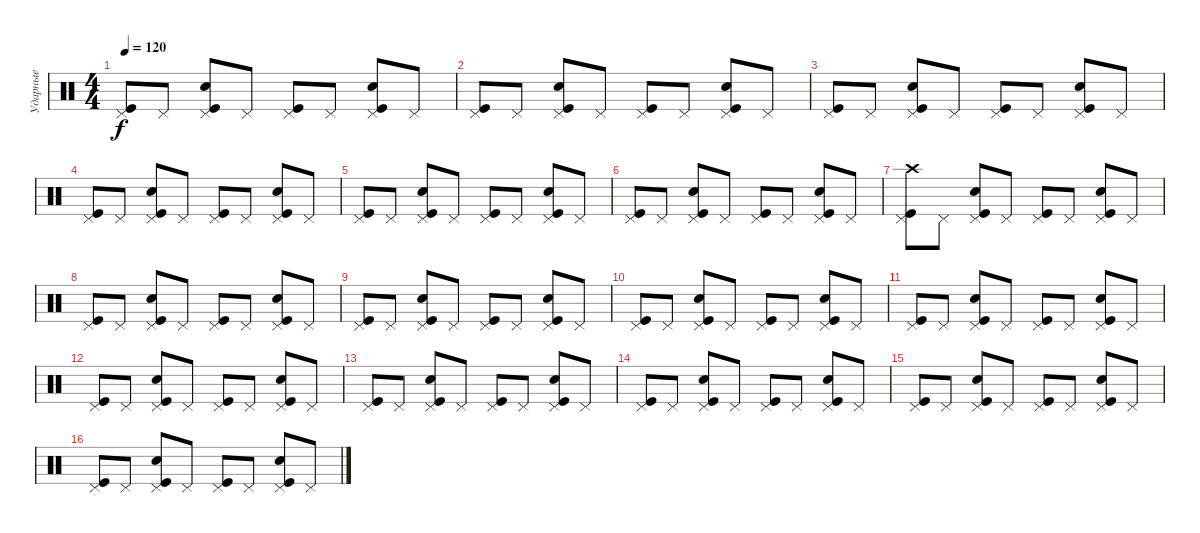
\track ("Ударные" "Ударные") {instrument percussion}
\staff {score}
\articulation defaults
\ts (4 4)
\tempo 120
\clef neutral
\ks c
("Pedal Hi-Hat (hit)" "Kick (hit)").8{dy f} "Pedal Hi-Hat (hit)".8 ("Pedal Hi-Hat (hit)" "Kick (hit)" "Snare (hit) 2").8 "Pedal Hi-Hat (hit)".8 ("Pedal Hi-Hat (hit)" "Kick (hit)").8 "Pedal Hi-Hat (hit)".8 ("Pedal Hi-Hat (hit)" "Kick (hit)" "Snare (hit) 2").8 "Pedal Hi-Hat (hit)".8 |
("Pedal Hi-Hat (hit)" "Kick (hit)").8 "Pedal Hi-Hat (hit)".8 ("Pedal Hi-Hat (hit)" "Kick (hit)" "Snare (hit) 2").8 "Pedal Hi-Hat (hit)".8 ("Pedal Hi-Hat (hit)" "Kick (hit)").8 "Pedal Hi-Hat (hit)".8 ("Pedal Hi-Hat (hit)" "Kick (hit)" "Snare (hit) 2").8 "Pedal Hi-Hat (hit)".8 |
("Pedal Hi-Hat (hit)" "Kick (hit)").8 "Pedal Hi-Hat (hit)".8 ("Pedal Hi-Hat (hit)" "Kick (hit)" "Snare (hit) 2").8 "Pedal Hi-Hat (hit)".8 ("Pedal Hi-Hat (hit)" "Kick (hit)").8 "Pedal Hi-Hat (hit)".8 ("Pedal Hi-Hat (hit)" "Kick (hit)" "Snare (hit) 2").8 "Pedal Hi-Hat (hit)".8 |
("Pedal Hi-Hat (hit)" "Kick (hit)").8 "Pedal Hi-Hat (hit)".8 ("Pedal Hi-Hat (hit)" "Kick (hit)" "Snare (hit) 2").8 "Pedal Hi-Hat (hit)".8 ("Pedal Hi-Hat (hit)" "Kick (hit)").8 "Pedal Hi-Hat (hit)".8 ("Pedal Hi-Hat (hit)" "Kick (hit)" "Snare (hit) 2").8 "Pedal Hi-Hat (hit)".8 |
("Pedal Hi-Hat (hit)" "Kick (hit)").8 "Pedal Hi-Hat (hit)".8 ("Pedal Hi-Hat (hit)" "Kick (hit)" "Snare (hit) 2").8 "Pedal Hi-Hat (hit)".8 ("Pedal Hi-Hat (hit)" "Kick (hit)").8 "Pedal Hi-Hat (hit)".8 ("Pedal Hi-Hat (hit)" "Kick (hit)" "Snare (hit) 2").8 "Pedal Hi-Hat (hit)".8 |
("Pedal Hi-Hat (hit)" "Kick (hit)").8 "Pedal Hi-Hat (hit)".8 ("Pedal Hi-Hat (hit)" "Kick (hit)" "Snare (hit) 2").8 "Pedal Hi-Hat (hit)".8 ("Pedal Hi-Hat (hit)" "Kick (hit)").8 "Pedal Hi-Hat (hit)".8 ("Pedal Hi-Hat (hit)" "Kick (hit)" "Snare (hit) 2").8 "Pedal Hi-Hat (hit)".8 |
("Pedal Hi-Hat (hit)" "Kick (hit)" "Crash high (hit)").8 "Pedal Hi-Hat (hit)".8 ("Pedal Hi-Hat (hit)" "Kick (hit)" "Snare (hit) 2").8 "Pedal Hi-Hat (hit)".8 ("Pedal Hi-Hat (hit)" "Kick (hit)").8 "Pedal Hi-Hat (hit)".8 ("Pedal Hi-Hat (hit)" "Kick (hit)" "Snare (hit) 2").8 "Pedal Hi-Hat (hit)".8 |
("Pedal Hi-Hat (hit)" "Kick (hit)").8 "Pedal Hi-Hat (hit)".8 ("Pedal Hi-Hat (hit)" "Kick (hit)" "Snare (hit) 2").8 "Pedal Hi-Hat (hit)".8 ("Pedal Hi-Hat (hit)" "Kick (hit)").8 "Pedal Hi-Hat (hit)".8 ("Pedal Hi-Hat (hit)" "Kick (hit)" "Snare (hit) 2").8 "Pedal Hi-Hat (hit)".8 |
("Pedal Hi-Hat (hit)" "Kick (hit)").8 "Pedal Hi-Hat (hit)".8 ("Pedal Hi-Hat (hit)" "Kick (hit)" "Snare (hit) 2").8 "Pedal Hi-Hat (hit)".8 ("Pedal Hi-Hat (hit)" "Kick (hit)").8 "Pedal Hi-Hat (hit)".8 ("Pedal Hi-Hat (hit)" "Kick (hit)" "Snare (hit) 2").8 "Pedal Hi-Hat (hit)".8 |
("Pedal Hi-Hat (hit)" "Kick (hit)").8 "Pedal Hi-Hat (hit)".8 ("Pedal Hi-Hat (hit)" "Kick (hit)" "Snare (hit) 2").8 "Pedal Hi-Hat (hit)".8 ("Pedal Hi-Hat (hit)" "Kick (hit)").8 "Pedal Hi-Hat (hit)".8 ("Pedal Hi-Hat (hit)" "Kick (hit)" "Snare (hit) 2").8 "Pedal Hi-Hat (hit)".8 |
("Pedal Hi-Hat (hit)" "Kick (hit)").8 "Pedal Hi-Hat (hit)".8 ("Pedal Hi-Hat (hit)" "Kick (hit)" "Snare (hit) 2").8 "Pedal Hi-Hat (hit)".8 ("Pedal Hi-Hat (hit)" "Kick (hit)").8 "Pedal Hi-Hat (hit)".8 ("Pedal Hi-Hat (hit)" "Kick (hit)" "Snare (hit) 2").8 "Pedal Hi-Hat (hit)".8 |
("Pedal Hi-Hat (hit)" "Kick (hit)").8 "Pedal Hi-Hat (hit)".8 ("Pedal Hi-Hat (hit)" "Kick (hit)" "Snare (hit) 2").8 "Pedal Hi-Hat (hit)".8 ("Pedal Hi-Hat (hit)" "Kick (hit)").8 "Pedal Hi-Hat (hit)".8 ("Pedal Hi-Hat (hit)" "Kick (hit)" "Snare (hit) 2").8 "Pedal Hi-Hat (hit)".8 |
("Pedal Hi-Hat (hit)" "Kick (hit)").8 "Pedal Hi-Hat (hit)".8 ("Pedal Hi-Hat (hit)" "Kick (hit)" "Snare (hit) 2").8 "Pedal Hi-Hat (hit)".8 ("Pedal Hi-Hat (hit)" "Kick (hit)").8 "Pedal Hi-Hat (hit)".8 ("Pedal Hi-Hat (hit)" "Kick (hit)" "Snare (hit) 2").8 "Pedal Hi-Hat (hit)".8 |
("Pedal Hi-Hat (hit)" "Kick (hit)").8 "Pedal Hi-Hat (hit)".8 ("Pedal Hi-Hat (hit)" "Kick (hit)" "Snare (hit) 2").8 "Pedal Hi-Hat (hit)".8 ("Pedal Hi-Hat (hit)" "Kick (hit)").8 "Pedal Hi-Hat (hit)".8 ("Pedal Hi-Hat (hit)" "Kick (hit)" "Snare (hit) 2").8 "Pedal Hi-Hat (hit)".8 |
("Pedal Hi-Hat (hit)" "Kick (hit)").8 "Pedal Hi-Hat (hit)".8 ("Pedal Hi-Hat (hit)" "Kick (hit)" "Snare (hit) 2").8 "Pedal Hi-Hat (hit)".8 ("Pedal Hi-Hat (hit)" "Kick (hit)").8 "Pedal Hi-Hat (hit)".8 ("Pedal Hi-Hat (hit)" "Kick (hit)" "Snare (hit) 2").8 "Pedal Hi-Hat (hit)".8 |
("Pedal Hi-Hat (hit)" "Kick (hit)").8 "Pedal Hi-Hat (hit)".8 ("Pedal Hi-Hat (hit)" "Kick (hit)" "Snare (hit) 2").8 "Pedal Hi-Hat (hit)".8 ("Pedal Hi-Hat (hit)" "Kick (hit)").8 "Pedal Hi-Hat (hit)".8 ("Pedal Hi-Hat (hit)" "Kick (hit)" "Snare (hit) 2").8 "Pedal Hi-Hat (hit)".8
